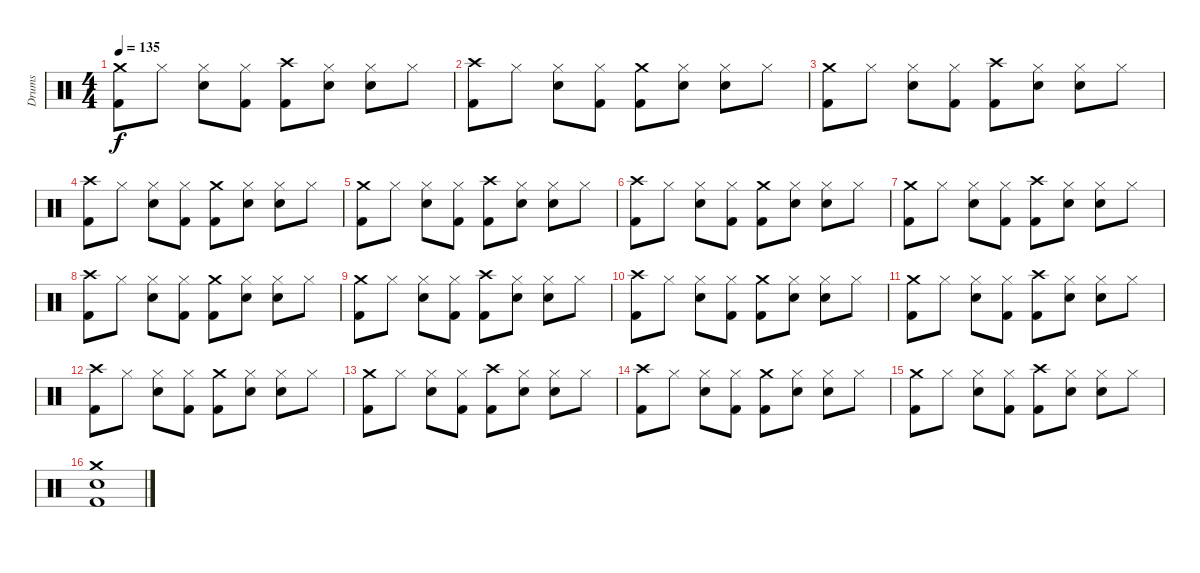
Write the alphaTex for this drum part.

\track ("Drums" "Drums") {instrument percussion}
\staff {score}
\articulation defaults
\ts (4 4)
\tempo 135
\clef neutral
\ks c
("Crash medium (hit)" "Kick (hit) 2").8{dy f} "Hi-Hat (closed)".8 ("Hi-Hat (closed)" "Snare (hit) 2").8 ("Hi-Hat (closed)" "Kick (hit) 2").8 ("Crash high (hit)" "Kick (hit) 2").8 ("Hi-Hat (closed)" "Snare (hit) 2").8 ("Hi-Hat (closed)" "Snare (hit) 2").8 "Hi-Hat (closed)".8 |
("Crash high (hit)" "Kick (hit) 2").8 "Hi-Hat (closed)".8 ("Hi-Hat (closed)" "Snare (hit) 2").8 ("Hi-Hat (closed)" "Kick (hit) 2").8 ("Crash medium (hit)" "Kick (hit) 2").8 ("Hi-Hat (closed)" "Snare (hit) 2").8 ("Hi-Hat (closed)" "Snare (hit) 2").8 "Hi-Hat (closed)".8 |
("Crash medium (hit)" "Kick (hit) 2").8 "Hi-Hat (closed)".8 ("Hi-Hat (closed)" "Snare (hit) 2").8 ("Hi-Hat (closed)" "Kick (hit) 2").8 ("Crash high (hit)" "Kick (hit) 2").8 ("Hi-Hat (closed)" "Snare (hit) 2").8 ("Hi-Hat (closed)" "Snare (hit) 2").8 "Hi-Hat (closed)".8 |
("Crash high (hit)" "Kick (hit) 2").8 "Hi-Hat (closed)".8 ("Hi-Hat (closed)" "Snare (hit) 2").8 ("Hi-Hat (closed)" "Kick (hit) 2").8 ("Crash medium (hit)" "Kick (hit) 2").8 ("Hi-Hat (closed)" "Snare (hit) 2").8 ("Hi-Hat (closed)" "Snare (hit) 2").8 "Hi-Hat (closed)".8 |
("Crash medium (hit)" "Kick (hit) 2").8 "Hi-Hat (closed)".8 ("Hi-Hat (closed)" "Snare (hit) 2").8 ("Hi-Hat (closed)" "Kick (hit) 2").8 ("Crash high (hit)" "Kick (hit) 2").8 ("Hi-Hat (closed)" "Snare (hit) 2").8 ("Hi-Hat (closed)" "Snare (hit) 2").8 "Hi-Hat (closed)".8 |
("Crash high (hit)" "Kick (hit) 2").8 "Hi-Hat (closed)".8 ("Hi-Hat (closed)" "Snare (hit) 2").8 ("Hi-Hat (closed)" "Kick (hit) 2").8 ("Crash medium (hit)" "Kick (hit) 2").8 ("Hi-Hat (closed)" "Snare (hit) 2").8 ("Hi-Hat (closed)" "Snare (hit) 2").8 "Hi-Hat (closed)".8 |
("Crash medium (hit)" "Kick (hit) 2").8 "Hi-Hat (closed)".8 ("Hi-Hat (closed)" "Snare (hit) 2").8 ("Hi-Hat (closed)" "Kick (hit) 2").8 ("Crash high (hit)" "Kick (hit) 2").8 ("Hi-Hat (closed)" "Snare (hit) 2").8 ("Hi-Hat (closed)" "Snare (hit) 2").8 "Hi-Hat (closed)".8 |
("Crash high (hit)" "Kick (hit) 2").8 "Hi-Hat (closed)".8 ("Hi-Hat (closed)" "Snare (hit) 2").8 ("Hi-Hat (closed)" "Kick (hit) 2").8 ("Crash medium (hit)" "Kick (hit) 2").8 ("Hi-Hat (closed)" "Snare (hit) 2").8 ("Hi-Hat (closed)" "Snare (hit) 2").8 "Hi-Hat (closed)".8 |
("Crash medium (hit)" "Kick (hit) 2").8 "Hi-Hat (closed)".8 ("Hi-Hat (closed)" "Snare (hit) 2").8 ("Hi-Hat (closed)" "Kick (hit) 2").8 ("Crash high (hit)" "Kick (hit) 2").8 ("Hi-Hat (closed)" "Snare (hit) 2").8 ("Hi-Hat (closed)" "Snare (hit) 2").8 "Hi-Hat (closed)".8 |
("Crash high (hit)" "Kick (hit) 2").8 "Hi-Hat (closed)".8 ("Hi-Hat (closed)" "Snare (hit) 2").8 ("Hi-Hat (closed)" "Kick (hit) 2").8 ("Crash medium (hit)" "Kick (hit) 2").8 ("Hi-Hat (closed)" "Snare (hit) 2").8 ("Hi-Hat (closed)" "Snare (hit) 2").8 "Hi-Hat (closed)".8 |
("Crash medium (hit)" "Kick (hit) 2").8 "Hi-Hat (closed)".8 ("Hi-Hat (closed)" "Snare (hit) 2").8 ("Hi-Hat (closed)" "Kick (hit) 2").8 ("Crash high (hit)" "Kick (hit) 2").8 ("Hi-Hat (closed)" "Snare (hit) 2").8 ("Hi-Hat (closed)" "Snare (hit) 2").8 "Hi-Hat (closed)".8 |
("Crash high (hit)" "Kick (hit) 2").8 "Hi-Hat (closed)".8 ("Hi-Hat (closed)" "Snare (hit) 2").8 ("Hi-Hat (closed)" "Kick (hit) 2").8 ("Crash medium (hit)" "Kick (hit) 2").8 ("Hi-Hat (closed)" "Snare (hit) 2").8 ("Hi-Hat (closed)" "Snare (hit) 2").8 "Hi-Hat (closed)".8 |
("Crash medium (hit)" "Kick (hit) 2").8 "Hi-Hat (closed)".8 ("Hi-Hat (closed)" "Snare (hit) 2").8 ("Hi-Hat (closed)" "Kick (hit) 2").8 ("Crash high (hit)" "Kick (hit) 2").8 ("Hi-Hat (closed)" "Snare (hit) 2").8 ("Hi-Hat (closed)" "Snare (hit) 2").8 "Hi-Hat (closed)".8 |
("Crash high (hit)" "Kick (hit) 2").8 "Hi-Hat (closed)".8 ("Hi-Hat (closed)" "Snare (hit) 2").8 ("Hi-Hat (closed)" "Kick (hit) 2").8 ("Crash medium (hit)" "Kick (hit) 2").8 ("Hi-Hat (closed)" "Snare (hit) 2").8 ("Hi-Hat (closed)" "Snare (hit) 2").8 "Hi-Hat (closed)".8 |
("Crash medium (hit)" "Kick (hit) 2").8 "Hi-Hat (closed)".8 ("Hi-Hat (closed)" "Snare (hit) 2").8 ("Hi-Hat (closed)" "Kick (hit) 2").8 ("Crash high (hit)" "Kick (hit) 2").8 ("Hi-Hat (closed)" "Snare (hit) 2").8 ("Hi-Hat (closed)" "Snare (hit) 2").8 "Hi-Hat (closed)".8 |
("Crash medium (hit)" "Snare (hit) 2" "Kick (hit) 2").1
